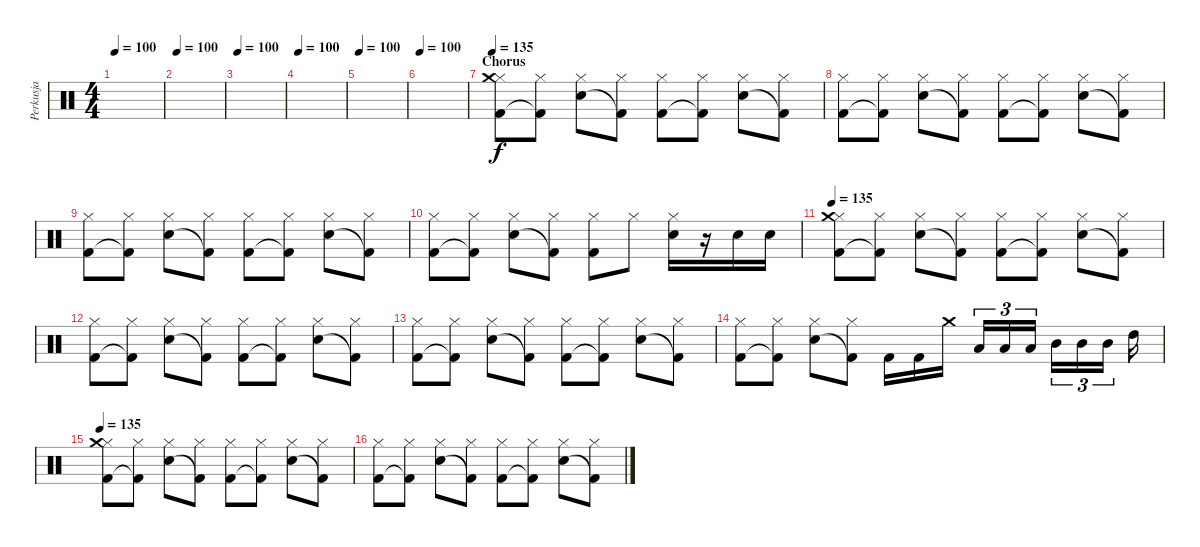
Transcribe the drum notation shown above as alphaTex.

\track ("Perkusja" "Perkusja") {instrument percussion}
\staff {score}
\articulation defaults
\ts (4 4)
\tempo 100
\clef neutral
\ks c
|
\tempo 100
|
\tempo 100
|
\tempo 100
|
\tempo 100
|
\tempo 100
|
\section ("" "Chorus")
\tempo 135
("Kick (hit) 2" "Hi-Hat (closed)" "Crash medium (hit)").8 ("Kick (hit) 2"{t} "Hi-Hat (closed)").8 ("Snare (hit) 2" "Hi-Hat (closed)").8 ("Kick (hit) 2"{t} "Hi-Hat (closed)").8 ("Kick (hit) 2" "Hi-Hat (closed)").8 ("Kick (hit) 2"{t} "Hi-Hat (closed)").8 ("Snare (hit) 2" "Hi-Hat (closed)").8 ("Kick (hit) 2"{t} "Hi-Hat (closed)").8 |
("Kick (hit) 2" "Hi-Hat (closed)").8 ("Kick (hit) 2"{t} "Hi-Hat (closed)").8 ("Snare (hit) 2" "Hi-Hat (closed)").8 ("Kick (hit) 2"{t} "Hi-Hat (closed)").8 ("Kick (hit) 2" "Hi-Hat (closed)").8 ("Kick (hit) 2"{t} "Hi-Hat (closed)").8 ("Snare (hit) 2" "Hi-Hat (closed)").8 ("Kick (hit) 2"{t} "Hi-Hat (closed)").8 |
("Kick (hit) 2" "Hi-Hat (closed)").8 ("Kick (hit) 2"{t} "Hi-Hat (closed)").8 ("Snare (hit) 2" "Hi-Hat (closed)").8 ("Kick (hit) 2"{t} "Hi-Hat (closed)").8 ("Kick (hit) 2" "Hi-Hat (closed)").8 ("Kick (hit) 2"{t} "Hi-Hat (closed)").8 ("Snare (hit) 2" "Hi-Hat (closed)").8 ("Kick (hit) 2"{t} "Hi-Hat (closed)").8 |
("Kick (hit) 2" "Hi-Hat (closed)").8 ("Kick (hit) 2"{t} "Hi-Hat (closed)").8 ("Snare (hit) 2" "Hi-Hat (closed)").8 ("Kick (hit) 2"{t} "Hi-Hat (closed)").8 ("Kick (hit) 2" "Hi-Hat (closed)").8 "Hi-Hat (closed)".8 ("Snare (hit) 2" "Hi-Hat (closed)").16 r.16 "Snare (hit) 2".16 "Snare (hit) 2".16 |
\tempo 135
("Kick (hit) 2" "Hi-Hat (closed)" "Crash medium (hit)").8 ("Kick (hit) 2"{t} "Hi-Hat (closed)").8 ("Snare (hit) 2" "Hi-Hat (closed)").8 ("Kick (hit) 2"{t} "Hi-Hat (closed)").8 ("Kick (hit) 2" "Hi-Hat (closed)").8 ("Kick (hit) 2"{t} "Hi-Hat (closed)").8 ("Snare (hit) 2" "Hi-Hat (closed)").8 ("Kick (hit) 2"{t} "Hi-Hat (closed)").8 |
("Kick (hit) 2" "Hi-Hat (closed)").8 ("Kick (hit) 2"{t} "Hi-Hat (closed)").8 ("Snare (hit) 2" "Hi-Hat (closed)").8 ("Kick (hit) 2"{t} "Hi-Hat (closed)").8 ("Kick (hit) 2" "Hi-Hat (closed)").8 ("Kick (hit) 2"{t} "Hi-Hat (closed)").8 ("Snare (hit) 2" "Hi-Hat (closed)").8 ("Kick (hit) 2"{t} "Hi-Hat (closed)").8 |
("Kick (hit) 2" "Hi-Hat (closed)").8 ("Kick (hit) 2"{t} "Hi-Hat (closed)").8 ("Snare (hit) 2" "Hi-Hat (closed)").8 ("Kick (hit) 2"{t} "Hi-Hat (closed)").8 ("Kick (hit) 2" "Hi-Hat (closed)").8 ("Kick (hit) 2"{t} "Hi-Hat (closed)").8 ("Snare (hit) 2" "Hi-Hat (closed)").8 ("Kick (hit) 2"{t} "Hi-Hat (closed)").8 |
("Kick (hit) 2" "Hi-Hat (closed)").8 ("Kick (hit) 2"{t} "Hi-Hat (closed)").8 ("Snare (hit) 2" "Hi-Hat (closed)").8 ("Kick (hit) 2"{t} "Hi-Hat (closed)").8 "Kick (hit) 2".16 "Kick (hit) 2".16 "Crash medium (hit)".16 "Low Tom (hit)".16{tu (3 2)} "Low Tom (hit)".16{tu (3 2)} "Low Tom (hit)".16{tu (3 2)} "Mid Tom (hit)".16{tu (3 2)} "Mid Tom (hit)".16{tu (3 2)} "Mid Tom (hit)".16{tu (3 2)} "High Tom (hit)".16 |
\tempo 135
("Kick (hit) 2" "Hi-Hat (closed)" "Crash medium (hit)").8 ("Kick (hit) 2"{t} "Hi-Hat (closed)").8 ("Snare (hit) 2" "Hi-Hat (closed)").8 ("Kick (hit) 2"{t} "Hi-Hat (closed)").8 ("Kick (hit) 2" "Hi-Hat (closed)").8 ("Kick (hit) 2"{t} "Hi-Hat (closed)").8 ("Snare (hit) 2" "Hi-Hat (closed)").8 ("Kick (hit) 2"{t} "Hi-Hat (closed)").8 |
("Kick (hit) 2" "Hi-Hat (closed)").8 ("Kick (hit) 2"{t} "Hi-Hat (closed)").8 ("Snare (hit) 2" "Hi-Hat (closed)").8 ("Kick (hit) 2"{t} "Hi-Hat (closed)").8 ("Kick (hit) 2" "Hi-Hat (closed)").8 ("Kick (hit) 2"{t} "Hi-Hat (closed)").8 ("Snare (hit) 2" "Hi-Hat (closed)").8 ("Kick (hit) 2"{t} "Hi-Hat (closed)").8
